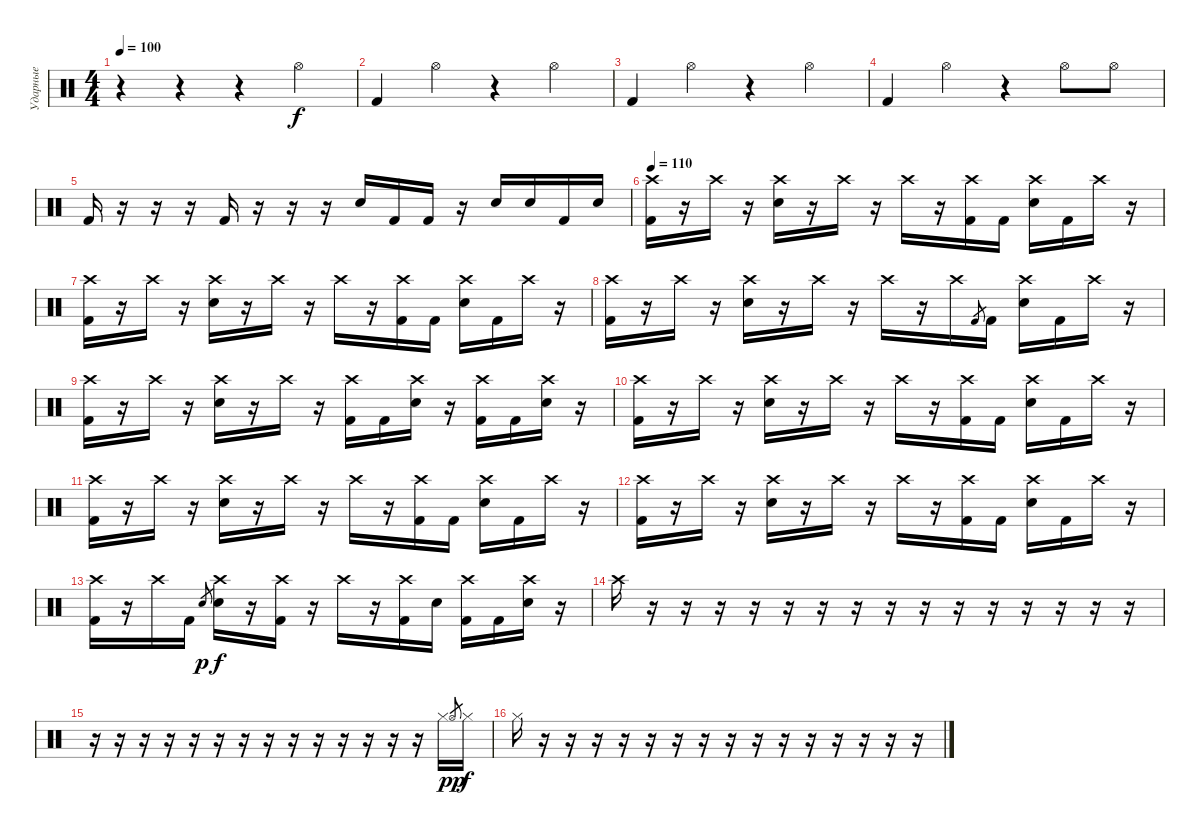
\track ("Ударные" "Ударные") {instrument percussion}
\staff {score}
\articulation defaults
\ts (4 4)
\tempo 100
\clef neutral
\ks c
r.4{dy f} r.4 r.4 "Hi-Hat (open)".4 |
"Kick (hit) 2".4 "Hi-Hat (open)".4 r.4 "Hi-Hat (open)".4 |
"Kick (hit) 2".4 "Hi-Hat (open)".4 r.4 "Hi-Hat (open)".4 |
"Kick (hit) 2".4 "Hi-Hat (open)".4 r.4 "Hi-Hat (open)".8 "Hi-Hat (open)".8 |
"Kick (hit) 2".16 r.16 r.16 r.16 "Kick (hit) 2".16 r.16 r.16 r.16 "Electric Snare (hit)".16 "Kick (hit) 2".16 "Kick (hit) 2".16 r.16 "Electric Snare (hit)".16 "Electric Snare (hit)".16 "Kick (hit) 2".16 "Electric Snare (hit)".16 |
\tempo 110
("Crash high (hit)" "Kick (hit) 2").16 r.16 "Crash high (hit)".16 r.16 ("Crash high (hit)" "Electric Snare (hit)").16 r.16 "Crash high (hit)".16 r.16 "Crash high (hit)".16 r.16 ("Crash high (hit)" "Kick (hit) 2").16 "Kick (hit) 2".16 ("Crash high (hit)" "Electric Snare (hit)").16 "Kick (hit) 2".16 "Crash high (hit)".16 r.16 |
("Crash high (hit)" "Kick (hit) 2").16 r.16 "Crash high (hit)".16 r.16 ("Crash high (hit)" "Electric Snare (hit)").16 r.16 "Crash high (hit)".16 r.16 "Crash high (hit)".16 r.16 ("Crash high (hit)" "Kick (hit) 2").16 "Kick (hit) 2".16 ("Crash high (hit)" "Electric Snare (hit)").16 "Kick (hit) 2".16 "Crash high (hit)".16 r.16 |
("Crash high (hit)" "Kick (hit) 2").16 r.16 "Crash high (hit)".16 r.16 ("Crash high (hit)" "Electric Snare (hit)").16 r.16 "Crash high (hit)".16 r.16 "Crash high (hit)".16 r.16 "Crash high (hit)".16 "Kick (hit) 2".8{gr} "Kick (hit) 2".16 ("Crash high (hit)" "Electric Snare (hit)").16 "Kick (hit) 2".16 "Crash high (hit)".16 r.16 |
("Crash high (hit)" "Kick (hit) 2").16 r.16 "Crash high (hit)".16 r.16 ("Crash high (hit)" "Electric Snare (hit)").16 r.16 "Crash high (hit)".16 r.16 ("Crash high (hit)" "Kick (hit) 2").16 "Kick (hit) 2".16 ("Crash high (hit)" "Electric Snare (hit)").16 r.16 ("Crash high (hit)" "Kick (hit) 2").16 "Kick (hit) 2".16 ("Crash high (hit)" "Electric Snare (hit)").16 r.16 |
("Crash high (hit)" "Kick (hit) 2").16 r.16 "Crash high (hit)".16 r.16 ("Crash high (hit)" "Electric Snare (hit)").16 r.16 "Crash high (hit)".16 r.16 "Crash high (hit)".16 r.16 ("Crash high (hit)" "Kick (hit) 2").16 "Kick (hit) 2".16 ("Crash high (hit)" "Electric Snare (hit)").16 "Kick (hit) 2".16 "Crash high (hit)".16 r.16 |
("Crash high (hit)" "Kick (hit) 2").16 r.16 "Crash high (hit)".16 r.16 ("Crash high (hit)" "Electric Snare (hit)").16 r.16 "Crash high (hit)".16 r.16 "Crash high (hit)".16 r.16 ("Crash high (hit)" "Kick (hit) 2").16 "Kick (hit) 2".16 ("Crash high (hit)" "Electric Snare (hit)").16 "Kick (hit) 2".16 "Crash high (hit)".16 r.16 |
("Crash high (hit)" "Kick (hit) 2").16 r.16 "Crash high (hit)".16 r.16 ("Crash high (hit)" "Electric Snare (hit)").16 r.16 "Crash high (hit)".16 r.16 "Crash high (hit)".16 r.16 ("Crash high (hit)" "Kick (hit) 2").16 "Kick (hit) 2".16 ("Crash high (hit)" "Electric Snare (hit)").16 "Kick (hit) 2".16 "Crash high (hit)".16 r.16 |
("Crash high (hit)" "Kick (hit) 2").16 r.16 "Crash high (hit)".16 "Kick (hit) 2".16 "Electric Snare (hit)".8{gr dy p} ("Crash high (hit)" "Electric Snare (hit)").16{dy f} r.16 ("Crash high (hit)" "Kick (hit) 2").16 r.16 "Crash high (hit)".16 r.16 ("Crash high (hit)" "Kick (hit) 2").16 "Electric Snare (hit)".16 ("Crash high (hit)" "Kick (hit) 2").16 "Kick (hit) 2".16 ("Crash high (hit)" "Electric Snare (hit)").16 r.16 |
"Crash high (hit)".16 r.16 r.16 r.16 r.16 r.16 r.16 r.16 r.16 r.16 r.16 r.16 r.16 r.16 r.16 r.16 |
r.16 r.16 r.16 r.16 r.16 r.16 r.16 r.16 r.16 r.16 r.16 r.16 r.16 r.16 "Hi-Hat (closed)".16 "Hi-Hat (open)".8{gr dy pp} "Hi-Hat (closed)".16{dy f} |
"Hi-Hat (closed)".16 r.16 r.16 r.16 r.16 r.16 r.16 r.16 r.16 r.16 r.16 r.16 r.16 r.16 r.16 r.16
